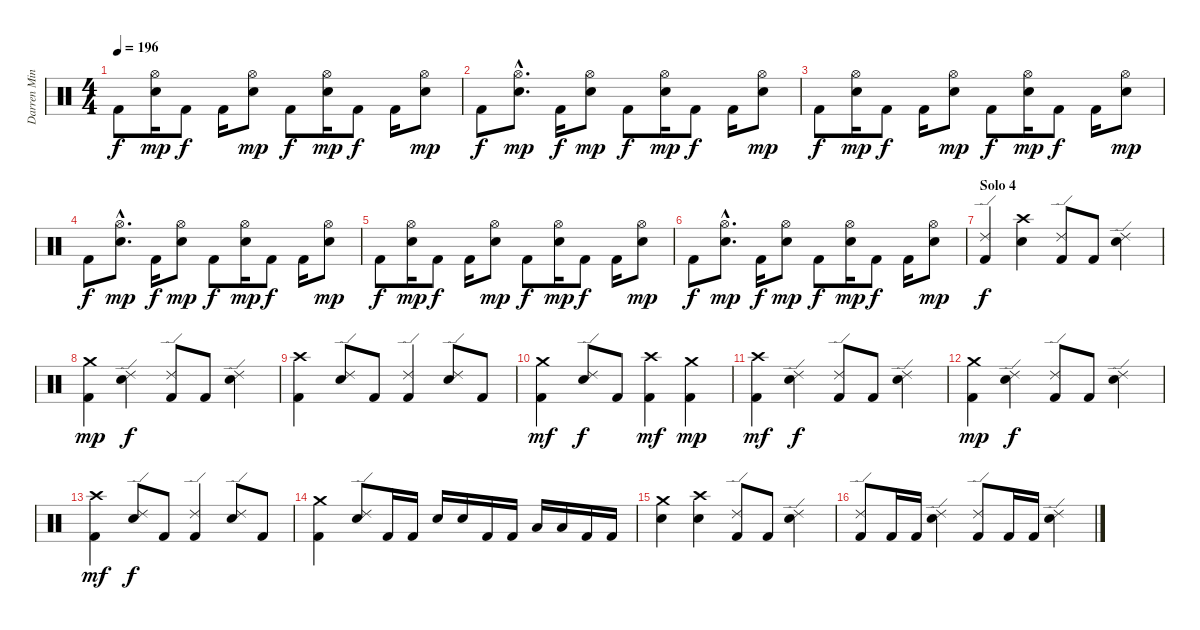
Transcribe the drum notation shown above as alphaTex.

\track ("Darren Minter" "Darren Min") {instrument percussion}
\staff {score}
\articulation defaults
\ts (4 4)
\tempo 196
\clef neutral
\ks c "Kick (hit) 2".8{dy f}
("Hi-Hat (open)" "Snare (hit) 2").16{dy mp} "Kick (hit) 2".8{dy f} "Kick (hit) 2".16 ("Hi-Hat (open)" "Snare (hit) 2").8{dy mp} "Kick (hit) 2".8{dy f} ("Hi-Hat (open)" "Snare (hit) 2").16{dy mp} "Kick (hit) 2".8{dy f} "Kick (hit) 2".16 ("Hi-Hat (open)" "Snare (hit) 2").8{dy mp} |
"Kick (hit) 2".8{dy f} ("Hi-Hat (open)"{hac} "Snare (hit) 2"{hac}).8{d dy mp} "Kick (hit) 2".16{dy f} ("Hi-Hat (open)" "Snare (hit) 2").8{dy mp} "Kick (hit) 2".8{dy f} ("Hi-Hat (open)" "Snare (hit) 2").16{dy mp} "Kick (hit) 2".8{dy f} "Kick (hit) 2".16 ("Hi-Hat (open)" "Snare (hit) 2").8{dy mp} |
"Kick (hit) 2".8{dy f} ("Hi-Hat (open)" "Snare (hit) 2").16{dy mp} "Kick (hit) 2".8{dy f} "Kick (hit) 2".16 ("Hi-Hat (open)" "Snare (hit) 2").8{dy mp} "Kick (hit) 2".8{dy f} ("Hi-Hat (open)" "Snare (hit) 2").16{dy mp} "Kick (hit) 2".8{dy f} "Kick (hit) 2".16 ("Hi-Hat (open)" "Snare (hit) 2").8{dy mp} |
"Kick (hit) 2".8{dy f} ("Hi-Hat (open)"{hac} "Snare (hit) 2"{hac}).8{d dy mp} "Kick (hit) 2".16{dy f} ("Hi-Hat (open)" "Snare (hit) 2").8{dy mp} "Kick (hit) 2".8{dy f} ("Hi-Hat (open)" "Snare (hit) 2").16{dy mp} "Kick (hit) 2".8{dy f} "Kick (hit) 2".16 ("Hi-Hat (open)" "Snare (hit) 2").8{dy mp} |
"Kick (hit) 2".8{dy f} ("Hi-Hat (open)" "Snare (hit) 2").16{dy mp} "Kick (hit) 2".8{dy f} "Kick (hit) 2".16 ("Hi-Hat (open)" "Snare (hit) 2").8{dy mp} "Kick (hit) 2".8{dy f} ("Hi-Hat (open)" "Snare (hit) 2").16{dy mp} "Kick (hit) 2".8{dy f} "Kick (hit) 2".16 ("Hi-Hat (open)" "Snare (hit) 2").8{dy mp} |
"Kick (hit) 2".8{dy f} ("Hi-Hat (open)"{hac} "Snare (hit) 2"{hac}).8{d dy mp} "Kick (hit) 2".16{dy f} ("Hi-Hat (open)" "Snare (hit) 2").8{dy mp} "Kick (hit) 2".8{dy f} ("Hi-Hat (open)" "Snare (hit) 2").16{dy mp} "Kick (hit) 2".8{dy f} "Kick (hit) 2".16 ("Hi-Hat (open)" "Snare (hit) 2").8{dy mp} |
\section ("" "Solo 4")
("Kick (hit) 2" "Ride (edge) 2").4{dy f} ("Crash high (hit)" "Snare (hit) 2").4 ("Kick (hit) 2" "Ride (edge) 2").8 "Kick (hit) 2".8 ("Ride (edge) 2" "Snare (hit) 2").4 |
("Kick (hit) 2" "Crash medium (hit)").4{dy mp} ("Ride (edge) 2" "Snare (hit) 2").4{dy f} ("Kick (hit) 2" "Ride (edge) 2").8 "Kick (hit) 2".8 ("Ride (edge) 2" "Snare (hit) 2").4 |
("Kick (hit) 2" "Crash high (hit)").4 ("Ride (edge) 2" "Snare (hit) 2").8 "Kick (hit) 2".8 ("Kick (hit) 2" "Ride (edge) 2").4 ("Ride (edge) 2" "Snare (hit) 2").8 "Kick (hit) 2".8 |
("Kick (hit) 2" "Crash medium (hit)").4{dy mf} ("Ride (edge) 2" "Snare (hit) 2").8{dy f} "Kick (hit) 2".8 ("Kick (hit) 2" "Crash high (hit)").4{dy mf} ("Kick (hit) 2" "Crash medium (hit)").4{dy mp} |
("Kick (hit) 2" "Crash high (hit)").4{dy mf} ("Ride (edge) 2" "Snare (hit) 2").4{dy f} ("Kick (hit) 2" "Ride (edge) 2").8 "Kick (hit) 2".8 ("Ride (edge) 2" "Snare (hit) 2").4 |
("Kick (hit) 2" "Crash medium (hit)").4{dy mp} ("Ride (edge) 2" "Snare (hit) 2").4{dy f} ("Kick (hit) 2" "Ride (edge) 2").8 "Kick (hit) 2".8 ("Ride (edge) 2" "Snare (hit) 2").4 |
("Kick (hit) 2" "Crash high (hit)").4{dy mf} ("Ride (edge) 2" "Snare (hit) 2").8{dy f} "Kick (hit) 2".8 ("Kick (hit) 2" "Ride (edge) 2").4 ("Ride (edge) 2" "Snare (hit) 2").8 "Kick (hit) 2".8 |
("Kick (hit) 2" "Crash medium (hit)").4 ("Ride (edge) 2" "Snare (hit) 2").8 "Kick (hit) 2".16 "Kick (hit) 2".16 "Snare (hit) 2".16 "Snare (hit) 2".16 "Kick (hit) 2".16 "Kick (hit) 2".16 "Low Tom (hit)".16 "Low Tom (hit)".16 "Kick (hit) 2".16 "Kick (hit) 2".16 |
("Crash medium (hit)" "Snare (hit) 2").4 ("Crash high (hit)" "Snare (hit) 2").4 ("Kick (hit) 2" "Ride (edge) 2").8 "Kick (hit) 2".8 ("Ride (edge) 2" "Snare (hit) 2").4 |
("Kick (hit) 2" "Ride (edge) 2").8 "Kick (hit) 2".16 "Kick (hit) 2".16 ("Ride (edge) 2" "Snare (hit) 2").4 ("Kick (hit) 2" "Ride (edge) 2").8 "Kick (hit) 2".16 "Kick (hit) 2".16 ("Ride (edge) 2" "Snare (hit) 2").4
